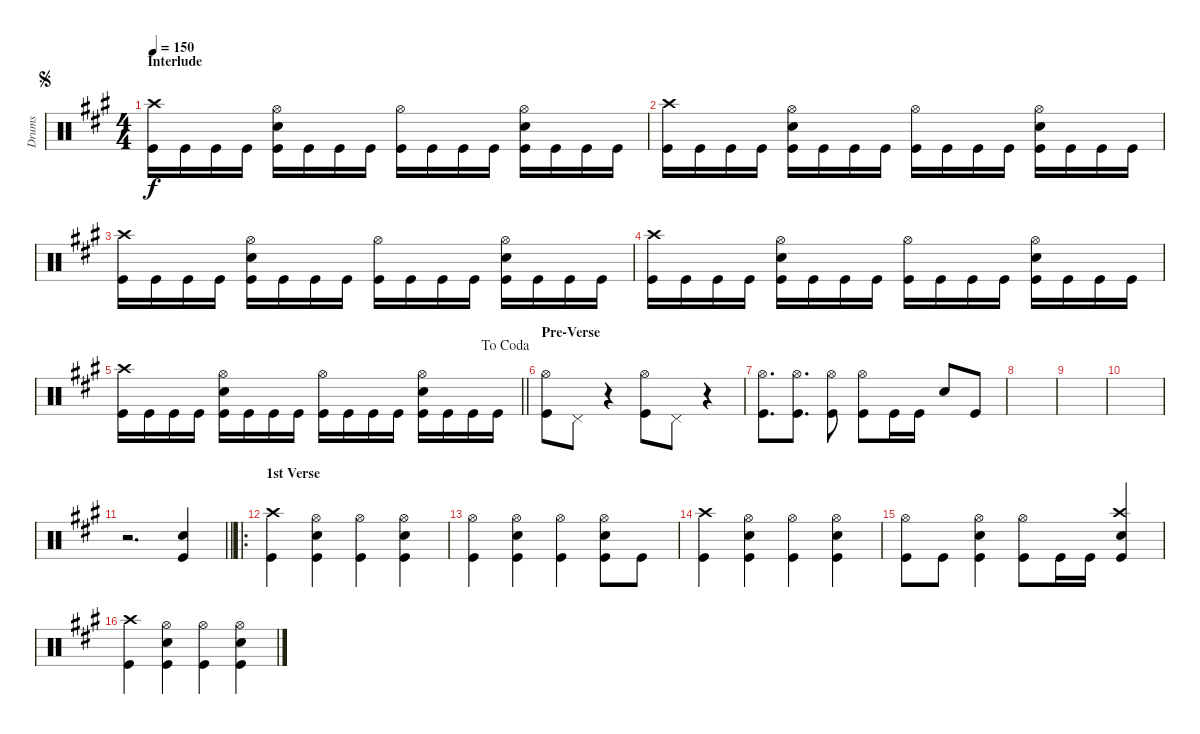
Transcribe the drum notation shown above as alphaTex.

\track ("Drums" "Drums") {instrument percussion}
\staff {score}
\articulation defaults
\ts (4 4)
\section ("" "Interlude")
\jump segno
\tempo 150
\clef neutral
\ks f#minor
("Kick (hit)" "Crash high (hit)").16{dy f} "Kick (hit)".16 "Kick (hit)".16 "Kick (hit)".16 ("Kick (hit)" "Snare (hit) 2" "Hi-Hat (open)").16 "Kick (hit)".16 "Kick (hit)".16 "Kick (hit)".16 ("Kick (hit)" "Hi-Hat (open)").16 "Kick (hit)".16 "Kick (hit)".16 "Kick (hit)".16 ("Kick (hit)" "Snare (hit) 2" "Hi-Hat (open)").16 "Kick (hit)".16 "Kick (hit)".16 "Kick (hit)".16 |
("Kick (hit)" "Crash high (hit)").16 "Kick (hit)".16 "Kick (hit)".16 "Kick (hit)".16 ("Kick (hit)" "Snare (hit) 2" "Hi-Hat (open)").16 "Kick (hit)".16 "Kick (hit)".16 "Kick (hit)".16 ("Kick (hit)" "Hi-Hat (open)").16 "Kick (hit)".16 "Kick (hit)".16 "Kick (hit)".16 ("Kick (hit)" "Snare (hit) 2" "Hi-Hat (open)").16 "Kick (hit)".16 "Kick (hit)".16 "Kick (hit)".16 |
("Kick (hit)" "Crash high (hit)").16 "Kick (hit)".16 "Kick (hit)".16 "Kick (hit)".16 ("Kick (hit)" "Snare (hit) 2" "Hi-Hat (open)").16 "Kick (hit)".16 "Kick (hit)".16 "Kick (hit)".16 ("Kick (hit)" "Hi-Hat (open)").16 "Kick (hit)".16 "Kick (hit)".16 "Kick (hit)".16 ("Kick (hit)" "Snare (hit) 2" "Hi-Hat (open)").16 "Kick (hit)".16 "Kick (hit)".16 "Kick (hit)".16 |
("Kick (hit)" "Crash high (hit)").16 "Kick (hit)".16 "Kick (hit)".16 "Kick (hit)".16 ("Kick (hit)" "Snare (hit) 2" "Hi-Hat (open)").16 "Kick (hit)".16 "Kick (hit)".16 "Kick (hit)".16 ("Kick (hit)" "Hi-Hat (open)").16 "Kick (hit)".16 "Kick (hit)".16 "Kick (hit)".16 ("Kick (hit)" "Snare (hit) 2" "Hi-Hat (open)").16 "Kick (hit)".16 "Kick (hit)".16 "Kick (hit)".16 |
\jump dacoda
\barLineRight lightlight
("Kick (hit)" "Crash high (hit)").16 "Kick (hit)".16 "Kick (hit)".16 "Kick (hit)".16 ("Kick (hit)" "Snare (hit) 2" "Hi-Hat (open)").16 "Kick (hit)".16 "Kick (hit)".16 "Kick (hit)".16 ("Kick (hit)" "Hi-Hat (open)").16 "Kick (hit)".16 "Kick (hit)".16 "Kick (hit)".16 ("Kick (hit)" "Snare (hit) 2" "Hi-Hat (open)").16 "Kick (hit)".16 "Kick (hit)".16 "Kick (hit)".16 |
\section ("" "Pre-Verse")
("Kick (hit)" "Hi-Hat (open)").8 "Pedal Hi-Hat (hit)".8 r.4 ("Kick (hit)" "Hi-Hat (open)").8 "Pedal Hi-Hat (hit)".8 r.4 |
("Kick (hit)" "Hi-Hat (open)").8{d} ("Kick (hit)" "Hi-Hat (open)").8{d} ("Kick (hit)" "Hi-Hat (open)").8 ("Kick (hit)" "Hi-Hat (open)").8 "Kick (hit)".16 "Kick (hit)".16 "Snare (hit) 2".8 "Kick (hit)".8 |
|
|
|
\barLineRight lightlight
r.2{d} ("Snare (hit) 2" "Kick (hit)").4 |
\ro
\section ("" "1st Verse")
("Kick (hit)" "Crash high (hit)").4 ("Kick (hit)" "Hi-Hat (open)" "Snare (hit) 2").4 ("Kick (hit)" "Hi-Hat (open)").4 ("Kick (hit)" "Hi-Hat (open)" "Snare (hit) 2").4 |
("Kick (hit)" "Hi-Hat (open)").4 ("Kick (hit)" "Hi-Hat (open)" "Snare (hit) 2").4 ("Kick (hit)" "Hi-Hat (open)").4 ("Kick (hit)" "Hi-Hat (open)" "Snare (hit) 2").8 "Kick (hit)".8 |
("Kick (hit)" "Crash high (hit)").4 ("Kick (hit)" "Hi-Hat (open)" "Snare (hit) 2").4 ("Kick (hit)" "Hi-Hat (open)").4 ("Kick (hit)" "Hi-Hat (open)" "Snare (hit) 2").4 |
("Kick (hit)" "Hi-Hat (open)").8 "Kick (hit)".8 ("Kick (hit)" "Hi-Hat (open)" "Snare (hit) 2").4 ("Kick (hit)" "Hi-Hat (open)").8 "Kick (hit)".16 "Kick (hit)".16 ("Kick (hit)" "Crash high (hit)" "Snare (hit) 2").4 |
("Kick (hit)" "Crash high (hit)").4 ("Kick (hit)" "Hi-Hat (open)" "Snare (hit) 2").4 ("Kick (hit)" "Hi-Hat (open)").4 ("Kick (hit)" "Hi-Hat (open)" "Snare (hit) 2").4
